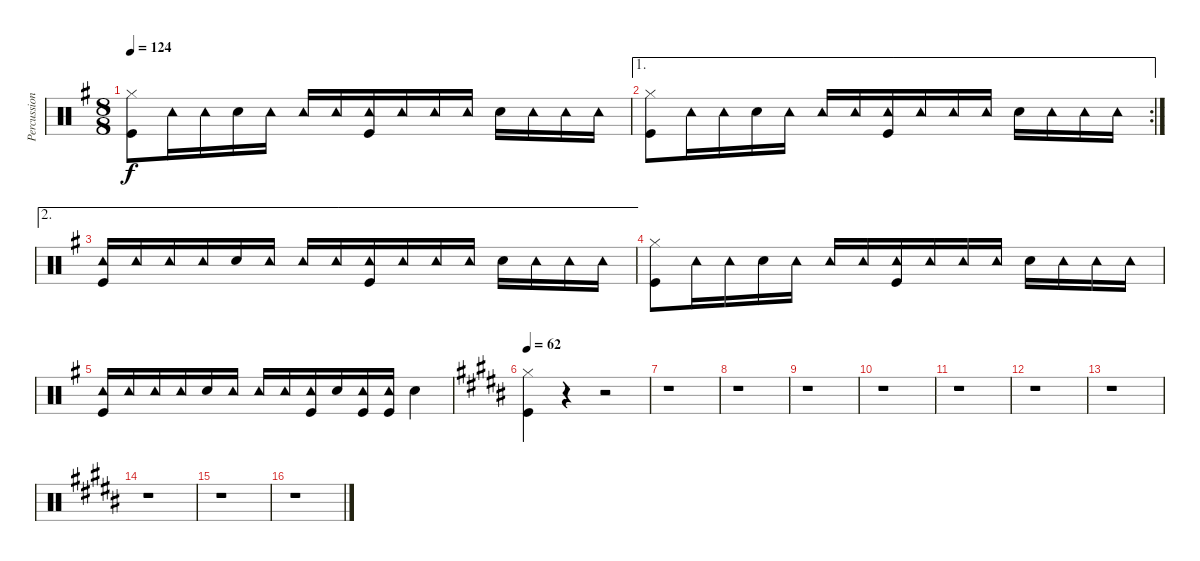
\track ("Percussions" "Percussion") {instrument percussion}
\staff {score}
\articulation defaults
\ts (8 8)
\tempo 124
\clef neutral
\ks g
("Hi-Hat (closed)" "Kick (hit)").8{dy f} "Tambourine (hit)".16 "Tambourine (hit)".16 "Snare (hit) 2".16 "Tambourine (hit)".16 "Tambourine (hit)".16 "Tambourine (hit)".16 ("Tambourine (hit)" "Kick (hit)").16 "Tambourine (hit)".16 "Tambourine (hit)".16 "Tambourine (hit)".16 "Snare (hit) 2".16 "Tambourine (hit)".16 "Tambourine (hit)".16 "Tambourine (hit)".16 |
\ae 1
\rc 2
("Hi-Hat (closed)" "Kick (hit)").8 "Tambourine (hit)".16 "Tambourine (hit)".16 "Snare (hit) 2".16 "Tambourine (hit)".16 "Tambourine (hit)".16 "Tambourine (hit)".16 ("Tambourine (hit)" "Kick (hit)").16 "Tambourine (hit)".16 "Tambourine (hit)".16 "Tambourine (hit)".16 "Snare (hit) 2".16 "Tambourine (hit)".16 "Tambourine (hit)".16 "Tambourine (hit)".16 |
\ae 2
("Tambourine (hit)" "Kick (hit)").16 "Tambourine (hit)".16 "Tambourine (hit)".16 "Tambourine (hit)".16 "Snare (hit) 2".16 "Tambourine (hit)".16 "Tambourine (hit)".16 "Tambourine (hit)".16 ("Tambourine (hit)" "Kick (hit)").16 "Tambourine (hit)".16 "Tambourine (hit)".16 "Tambourine (hit)".16 "Snare (hit) 2".16 "Tambourine (hit)".16 "Tambourine (hit)".16 "Tambourine (hit)".16 |
("Hi-Hat (closed)" "Kick (hit)").8 "Tambourine (hit)".16 "Tambourine (hit)".16 "Snare (hit) 2".16 "Tambourine (hit)".16 "Tambourine (hit)".16 "Tambourine (hit)".16 ("Tambourine (hit)" "Kick (hit)").16 "Tambourine (hit)".16 "Tambourine (hit)".16 "Tambourine (hit)".16 "Snare (hit) 2".16 "Tambourine (hit)".16 "Tambourine (hit)".16 "Tambourine (hit)".16 |
("Tambourine (hit)" "Kick (hit)").16 "Tambourine (hit)".16 "Tambourine (hit)".16 "Tambourine (hit)".16 "Snare (hit) 2".16 "Tambourine (hit)".16 "Tambourine (hit)".16 "Tambourine (hit)".16 ("Tambourine (hit)" "Kick (hit)").16 "Snare (hit) 2".16 ("Tambourine (hit)" "Kick (hit)").16 ("Tambourine (hit)" "Kick (hit)").16 "Snare (hit) 2".4 |
\tempo 62
\ks b
("Hi-Hat (closed)" "Kick (hit)").4 r.4 r.2 |
r.1 |
r.1 |
r.1 |
r.1 |
r.1 |
r.1 |
r.1 |
r.1 |
r.1 |
r.1
